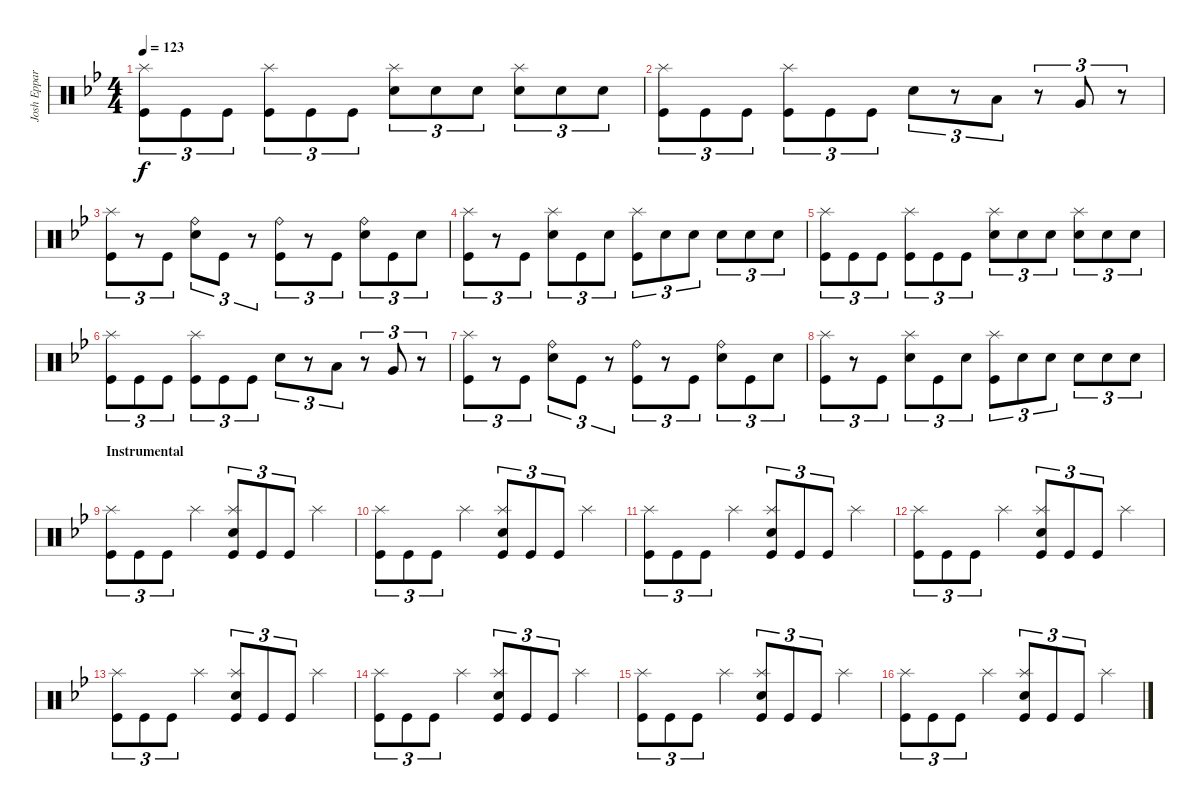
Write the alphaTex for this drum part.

\track ("Josh Eppard" "Josh Eppar") {instrument percussion}
\staff {score}
\articulation defaults
\ts (4 4)
\tempo 123
\clef neutral
\ks gminor
("Kick (hit)" "Splash (hit)").8{tu (3 2) dy f} "Kick (hit)".8{tu (3 2)} "Kick (hit)".8{tu (3 2)} ("Kick (hit)" "Splash (hit)").8{tu (3 2)} "Kick (hit)".8{tu (3 2)} "Kick (hit)".8{tu (3 2)} ("Snare (hit) 2" "Splash (hit)").8{tu (3 2)} "Snare (hit) 2".8{tu (3 2)} "Snare (hit) 2".8{tu (3 2)} ("Snare (hit) 2" "Splash (hit)").8{tu (3 2)} "Snare (hit) 2".8{tu (3 2)} "Snare (hit) 2".8{tu (3 2)} |
("Kick (hit)" "Splash (hit)").8{tu (3 2)} "Kick (hit)".8{tu (3 2)} "Kick (hit)".8{tu (3 2)} ("Kick (hit)" "Splash (hit)").8{tu (3 2)} "Kick (hit)".8{tu (3 2)} "Kick (hit)".8{tu (3 2)} "Snare (hit) 2".8{tu (3 2)} r.8{tu (3 2)} "Low Tom (hit)".8{tu (3 2)} r.8{tu (3 2)} "Very Low Tom (hit)".8{tu (3 2)} r.8{tu (3 2)} |
("Splash (hit)" "Kick (hit)").8{tu (3 2)} r.8{tu (3 2)} "Kick (hit)".8{tu (3 2)} ("Snare (hit) 2" "Ride (bell)").8{tu (3 2)} "Kick (hit)".8{tu (3 2)} r.8{tu (3 2)} ("Kick (hit)" "Ride (bell)").8{tu (3 2)} r.8{tu (3 2)} "Kick (hit)".8{tu (3 2)} ("Ride (bell)" "Snare (hit) 2").8{tu (3 2)} "Kick (hit)".8{tu (3 2)} "Snare (hit) 2".8{tu (3 2)} |
("Splash (hit)" "Kick (hit)").8{tu (3 2)} r.8{tu (3 2)} "Kick (hit)".8{tu (3 2)} ("Snare (hit) 2" "Splash (hit)").8{tu (3 2)} "Kick (hit)".8{tu (3 2)} "Snare (hit) 2".8{tu (3 2)} ("Kick (hit)" "Splash (hit)").8{tu (3 2)} "Snare (hit) 2".8{tu (3 2)} "Snare (hit) 2".8{tu (3 2)} "Snare (hit) 2".8{tu (3 2)} "Snare (hit) 2".8{tu (3 2)} "Snare (hit) 2".8{tu (3 2)} |
("Kick (hit)" "Splash (hit)").8{tu (3 2)} "Kick (hit)".8{tu (3 2)} "Kick (hit)".8{tu (3 2)} ("Kick (hit)" "Splash (hit)").8{tu (3 2)} "Kick (hit)".8{tu (3 2)} "Kick (hit)".8{tu (3 2)} ("Snare (hit) 2" "Splash (hit)").8{tu (3 2)} "Snare (hit) 2".8{tu (3 2)} "Snare (hit) 2".8{tu (3 2)} ("Snare (hit) 2" "Splash (hit)").8{tu (3 2)} "Snare (hit) 2".8{tu (3 2)} "Snare (hit) 2".8{tu (3 2)} |
("Kick (hit)" "Splash (hit)").8{tu (3 2)} "Kick (hit)".8{tu (3 2)} "Kick (hit)".8{tu (3 2)} ("Kick (hit)" "Splash (hit)").8{tu (3 2)} "Kick (hit)".8{tu (3 2)} "Kick (hit)".8{tu (3 2)} "Snare (hit) 2".8{tu (3 2)} r.8{tu (3 2)} "Low Tom (hit)".8{tu (3 2)} r.8{tu (3 2)} "Very Low Tom (hit)".8{tu (3 2)} r.8{tu (3 2)} |
("Splash (hit)" "Kick (hit)").8{tu (3 2)} r.8{tu (3 2)} "Kick (hit)".8{tu (3 2)} ("Snare (hit) 2" "Ride (bell)").8{tu (3 2)} "Kick (hit)".8{tu (3 2)} r.8{tu (3 2)} ("Kick (hit)" "Ride (bell)").8{tu (3 2)} r.8{tu (3 2)} "Kick (hit)".8{tu (3 2)} ("Ride (bell)" "Snare (hit) 2").8{tu (3 2)} "Kick (hit)".8{tu (3 2)} "Snare (hit) 2".8{tu (3 2)} |
("Splash (hit)" "Kick (hit)").8{tu (3 2)} r.8{tu (3 2)} "Kick (hit)".8{tu (3 2)} ("Snare (hit) 2" "Splash (hit)").8{tu (3 2)} "Kick (hit)".8{tu (3 2)} "Snare (hit) 2".8{tu (3 2)} ("Kick (hit)" "Splash (hit)").8{tu (3 2)} "Snare (hit) 2".8{tu (3 2)} "Snare (hit) 2".8{tu (3 2)} "Snare (hit) 2".8{tu (3 2)} "Snare (hit) 2".8{tu (3 2)} "Snare (hit) 2".8{tu (3 2)} |
\section ("" "Instrumental")
("Kick (hit)" "Splash (hit)").8{tu (3 2)} "Kick (hit)".8{tu (3 2)} "Kick (hit)".8{tu (3 2)} "Splash (hit)".4 ("Kick (hit)" "Splash (hit)" "Snare (hit) 2").8{tu (3 2)} "Kick (hit)".8{tu (3 2)} "Kick (hit)".8{tu (3 2)} "Splash (hit)".4 |
("Kick (hit)" "Splash (hit)").8{tu (3 2)} "Kick (hit)".8{tu (3 2)} "Kick (hit)".8{tu (3 2)} "Splash (hit)".4 ("Kick (hit)" "Splash (hit)" "Snare (hit) 2").8{tu (3 2)} "Kick (hit)".8{tu (3 2)} "Kick (hit)".8{tu (3 2)} "Splash (hit)".4 |
("Kick (hit)" "Splash (hit)").8{tu (3 2)} "Kick (hit)".8{tu (3 2)} "Kick (hit)".8{tu (3 2)} "Splash (hit)".4 ("Kick (hit)" "Splash (hit)" "Snare (hit) 2").8{tu (3 2)} "Kick (hit)".8{tu (3 2)} "Kick (hit)".8{tu (3 2)} "Splash (hit)".4 |
("Kick (hit)" "Splash (hit)").8{tu (3 2)} "Kick (hit)".8{tu (3 2)} "Kick (hit)".8{tu (3 2)} "Splash (hit)".4 ("Kick (hit)" "Splash (hit)" "Snare (hit) 2").8{tu (3 2)} "Kick (hit)".8{tu (3 2)} "Kick (hit)".8{tu (3 2)} "Splash (hit)".4 |
("Kick (hit)" "Splash (hit)").8{tu (3 2)} "Kick (hit)".8{tu (3 2)} "Kick (hit)".8{tu (3 2)} "Splash (hit)".4 ("Kick (hit)" "Splash (hit)" "Snare (hit) 2").8{tu (3 2)} "Kick (hit)".8{tu (3 2)} "Kick (hit)".8{tu (3 2)} "Splash (hit)".4 |
("Kick (hit)" "Splash (hit)").8{tu (3 2)} "Kick (hit)".8{tu (3 2)} "Kick (hit)".8{tu (3 2)} "Splash (hit)".4 ("Kick (hit)" "Splash (hit)" "Snare (hit) 2").8{tu (3 2)} "Kick (hit)".8{tu (3 2)} "Kick (hit)".8{tu (3 2)} "Splash (hit)".4 |
("Kick (hit)" "Splash (hit)").8{tu (3 2)} "Kick (hit)".8{tu (3 2)} "Kick (hit)".8{tu (3 2)} "Splash (hit)".4 ("Kick (hit)" "Splash (hit)" "Snare (hit) 2").8{tu (3 2)} "Kick (hit)".8{tu (3 2)} "Kick (hit)".8{tu (3 2)} "Splash (hit)".4 |
("Kick (hit)" "Splash (hit)").8{tu (3 2)} "Kick (hit)".8{tu (3 2)} "Kick (hit)".8{tu (3 2)} "Splash (hit)".4 ("Kick (hit)" "Splash (hit)" "Snare (hit) 2").8{tu (3 2)} "Kick (hit)".8{tu (3 2)} "Kick (hit)".8{tu (3 2)} "Splash (hit)".4
